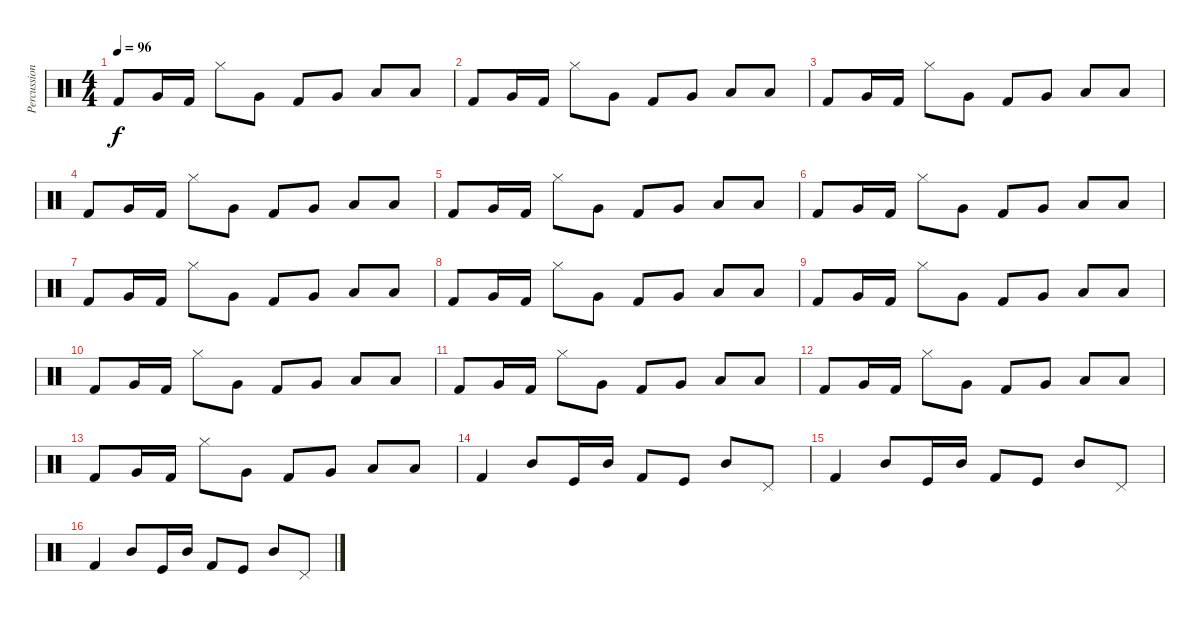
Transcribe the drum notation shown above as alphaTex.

\track ("Percussions" "Percussion") {instrument percussion}
\staff {score}
\articulation defaults
\ts (4 4)
\tempo 96
\clef neutral
\ks c "Kick (hit) 2".8{dy f volume 8} "Very Low Tom (hit)".16 "Kick (hit) 2".16 "Hi-Hat (closed)".8 "Very Low Tom (hit)".8 "Kick (hit) 2".8 "Very Low Tom (hit)".8 "Low Tom (hit)".8 "Low Tom (hit)".8
|
"Kick (hit) 2".8 "Very Low Tom (hit)".16 "Kick (hit) 2".16 "Hi-Hat (closed)".8 "Very Low Tom (hit)".8 "Kick (hit) 2".8 "Very Low Tom (hit)".8 "Low Tom (hit)".8 "Low Tom (hit)".8 |
"Kick (hit) 2".8 "Very Low Tom (hit)".16 "Kick (hit) 2".16 "Hi-Hat (closed)".8 "Very Low Tom (hit)".8 "Kick (hit) 2".8 "Very Low Tom (hit)".8 "Low Tom (hit)".8 "Low Tom (hit)".8 |
"Kick (hit) 2".8 "Very Low Tom (hit)".16 "Kick (hit) 2".16 "Hi-Hat (closed)".8 "Very Low Tom (hit)".8 "Kick (hit) 2".8 "Very Low Tom (hit)".8 "Low Tom (hit)".8 "Low Tom (hit)".8 |
"Kick (hit) 2".8 "Very Low Tom (hit)".16 "Kick (hit) 2".16 "Hi-Hat (closed)".8 "Very Low Tom (hit)".8 "Kick (hit) 2".8 "Very Low Tom (hit)".8 "Low Tom (hit)".8 "Low Tom (hit)".8 |
"Kick (hit) 2".8 "Very Low Tom (hit)".16 "Kick (hit) 2".16 "Hi-Hat (closed)".8 "Very Low Tom (hit)".8 "Kick (hit) 2".8 "Very Low Tom (hit)".8 "Low Tom (hit)".8 "Low Tom (hit)".8 |
"Kick (hit) 2".8 "Very Low Tom (hit)".16 "Kick (hit) 2".16 "Hi-Hat (closed)".8 "Very Low Tom (hit)".8 "Kick (hit) 2".8 "Very Low Tom (hit)".8 "Low Tom (hit)".8 "Low Tom (hit)".8 |
"Kick (hit) 2".8 "Very Low Tom (hit)".16 "Kick (hit) 2".16 "Hi-Hat (closed)".8 "Very Low Tom (hit)".8 "Kick (hit) 2".8 "Very Low Tom (hit)".8 "Low Tom (hit)".8 "Low Tom (hit)".8 |
"Kick (hit) 2".8 "Very Low Tom (hit)".16 "Kick (hit) 2".16 "Hi-Hat (closed)".8 "Very Low Tom (hit)".8 "Kick (hit) 2".8 "Very Low Tom (hit)".8 "Low Tom (hit)".8 "Low Tom (hit)".8 |
"Kick (hit) 2".8 "Very Low Tom (hit)".16 "Kick (hit) 2".16 "Hi-Hat (closed)".8 "Very Low Tom (hit)".8 "Kick (hit) 2".8 "Very Low Tom (hit)".8 "Low Tom (hit)".8 "Low Tom (hit)".8 |
"Kick (hit) 2".8 "Very Low Tom (hit)".16 "Kick (hit) 2".16 "Hi-Hat (closed)".8 "Very Low Tom (hit)".8 "Kick (hit) 2".8 "Very Low Tom (hit)".8 "Low Tom (hit)".8 "Low Tom (hit)".8 |
"Kick (hit) 2".8 "Very Low Tom (hit)".16 "Kick (hit) 2".16 "Hi-Hat (closed)".8 "Very Low Tom (hit)".8 "Kick (hit) 2".8 "Very Low Tom (hit)".8 "Low Tom (hit)".8 "Low Tom (hit)".8 |
"Kick (hit) 2".8 "Very Low Tom (hit)".16 "Kick (hit) 2".16 "Hi-Hat (closed)".8 "Very Low Tom (hit)".8 "Kick (hit) 2".8 "Very Low Tom (hit)".8 "Low Tom (hit)".8 "Low Tom (hit)".8 |
"Kick (hit) 2".4{volume 16} "Mid Tom (hit)".8 "Kick (hit)".16 "Mid Tom (hit)".16 "Kick (hit) 2".8 "Kick (hit)".8 "Mid Tom (hit)".8 "Pedal Hi-Hat (hit)".8 |
"Kick (hit) 2".4 "Mid Tom (hit)".8 "Kick (hit)".16 "Mid Tom (hit)".16 "Kick (hit) 2".8 "Kick (hit)".8 "Mid Tom (hit)".8 "Pedal Hi-Hat (hit)".8 |
"Kick (hit) 2".4 "Mid Tom (hit)".8 "Kick (hit)".16 "Mid Tom (hit)".16 "Kick (hit) 2".8 "Kick (hit)".8 "Mid Tom (hit)".8 "Pedal Hi-Hat (hit)".8
